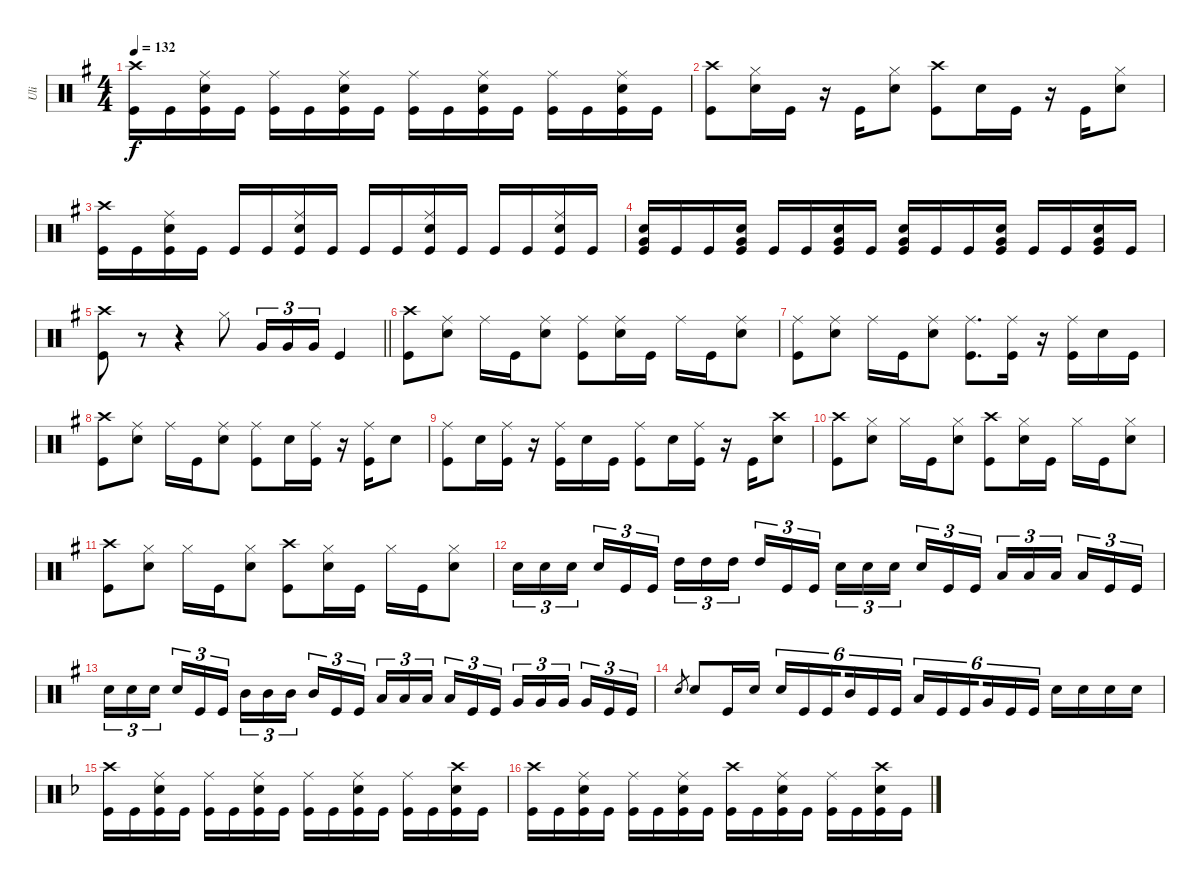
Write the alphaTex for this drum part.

\track ("Uli" "Uli") {instrument percussion}
\staff {score}
\articulation defaults
\ts (4 4)
\tempo 132
\clef neutral
\ks eminor
("Crash high (hit)" "Kick (hit)").16{dy f} "Kick (hit)".16 ("Ride (middle)" "Snare (hit) 2" "Kick (hit)").16 "Kick (hit)".16 ("Ride (middle)" "Kick (hit)").16 "Kick (hit)".16 ("Ride (middle)" "Snare (hit) 2" "Kick (hit)").16 "Kick (hit)".16 ("Ride (middle)" "Kick (hit)").16 "Kick (hit)".16 ("Ride (middle)" "Snare (hit) 2" "Kick (hit)").16 "Kick (hit)".16 ("Ride (middle)" "Kick (hit)").16 "Kick (hit)".16 ("Ride (middle)" "Snare (hit) 2" "Kick (hit)").16 "Kick (hit)".16 |
("Crash high (hit)" "Kick (hit)").8 ("Hi-Hat (closed)" "Snare (hit) 2").16 "Kick (hit)".16 r.16 "Kick (hit)".16 ("Hi-Hat (closed)" "Snare (hit) 2").8 ("Crash high (hit)" "Kick (hit)").8 "Snare (hit) 2".16 "Kick (hit)".16 r.16 "Kick (hit)".16 ("Hi-Hat (closed)" "Snare (hit) 2").8 |
("Crash high (hit)" "Kick (hit)").16 "Kick (hit)".16 ("Ride (middle)" "Snare (hit) 2" "Kick (hit)").16 "Kick (hit)".16 "Kick (hit)".16 "Kick (hit)".16 ("Ride (middle)" "Snare (hit) 2" "Kick (hit)").16 "Kick (hit)".16 "Kick (hit)".16 "Kick (hit)".16 ("Ride (middle)" "Snare (hit) 2" "Kick (hit)").16 "Kick (hit)".16 "Kick (hit)".16 "Kick (hit)".16 ("Ride (middle)" "Snare (hit) 2" "Kick (hit)").16 "Kick (hit)".16 |
("Snare (hit) 2" "Very Low Tom (hit)" "Kick (hit)").16 "Kick (hit)".16 "Kick (hit)".16 ("Snare (hit) 2" "Very Low Tom (hit)" "Kick (hit)").16 "Kick (hit)".16 "Kick (hit)".16 ("Snare (hit) 2" "Very Low Tom (hit)" "Kick (hit)").16 "Kick (hit)".16 ("Snare (hit) 2" "Very Low Tom (hit)" "Kick (hit)").16 "Kick (hit)".16 "Kick (hit)".16 ("Snare (hit) 2" "Very Low Tom (hit)" "Kick (hit)").16 "Kick (hit)".16 "Kick (hit)".16 ("Snare (hit) 2" "Very Low Tom (hit)" "Kick (hit)").16 "Kick (hit)".16 |
\barLineRight lightlight
("Crash high (hit)" "Kick (hit)").8 r.8 r.4 "Hi-Hat (closed)".8 "Very Low Tom (hit)".16{tu (3 2)} "Very Low Tom (hit)".16{tu (3 2)} "Very Low Tom (hit)".16{tu (3 2)} "Kick (hit)".4 |
("Crash high (hit)" "Kick (hit)").8 ("Ride (middle)" "Snare (hit) 2").8 "Ride (middle)".16 "Kick (hit)".16 ("Ride (middle)" "Snare (hit) 2").8 ("Ride (middle)" "Kick (hit)").8 ("Ride (middle)" "Snare (hit) 2").16 "Kick (hit)".16 "Ride (middle)".16 "Kick (hit)".16 ("Ride (middle)" "Snare (hit) 2").8 |
("Ride (middle)" "Kick (hit)").8 ("Ride (middle)" "Snare (hit) 2").8 "Ride (middle)".16 "Kick (hit)".16 ("Ride (middle)" "Snare (hit) 2").8 ("Ride (middle)" "Kick (hit)").8{d} ("Ride (middle)" "Kick (hit)").16 r.16 ("Ride (middle)" "Kick (hit)").16 "Snare (hit) 2".16 "Kick (hit)".16 |
("Crash high (hit)" "Kick (hit)").8 ("Ride (middle)" "Snare (hit) 2").8 "Ride (middle)".16 "Kick (hit)".16 ("Ride (middle)" "Snare (hit) 2").8 ("Ride (middle)" "Kick (hit)").8 "Snare (hit) 2".16 ("Ride (middle)" "Kick (hit)").16 r.16 ("Ride (middle)" "Kick (hit)").16 "Snare (hit) 2".8 |
("Ride (middle)" "Kick (hit)").8 "Snare (hit) 2".16 ("Ride (middle)" "Kick (hit)").16 r.16 ("Ride (middle)" "Kick (hit)").16 "Snare (hit) 2".16 "Kick (hit)".16 ("Ride (middle)" "Kick (hit)").8 "Snare (hit) 2".16 ("Ride (middle)" "Kick (hit)").16 r.16 "Kick (hit)".16 ("Crash high (hit)" "Snare (hit) 2").8 |
("Crash high (hit)" "Kick (hit)").8 ("Hi-Hat (closed)" "Snare (hit) 2").8 "Hi-Hat (closed)".16 "Kick (hit)".16 ("Hi-Hat (closed)" "Snare (hit) 2").8 ("Crash high (hit)" "Kick (hit)").8 ("Hi-Hat (closed)" "Snare (hit) 2").16 "Kick (hit)".16 "Hi-Hat (closed)".16 "Kick (hit)".16 ("Hi-Hat (closed)" "Snare (hit) 2").8 |
("Crash high (hit)" "Kick (hit)").8 ("Hi-Hat (closed)" "Snare (hit) 2").8 "Hi-Hat (closed)".16 "Kick (hit)".16 ("Hi-Hat (closed)" "Snare (hit) 2").8 ("Crash high (hit)" "Kick (hit)").8 ("Hi-Hat (closed)" "Snare (hit) 2").16 "Kick (hit)".16 "Hi-Hat (closed)".16 "Kick (hit)".16 ("Hi-Hat (closed)" "Snare (hit) 2").8 |
"Snare (hit) 2".16{tu (3 2)} "Snare (hit) 2".16{tu (3 2)} "Snare (hit) 2".16{tu (3 2) beam splitsecondary} "Snare (hit) 2".16{tu (3 2)} "Kick (hit)".16{tu (3 2)} "Kick (hit)".16{tu (3 2)} "High Tom (hit)".16{tu (3 2)} "High Tom (hit)".16{tu (3 2)} "High Tom (hit)".16{tu (3 2) beam splitsecondary} "High Tom (hit)".16{tu (3 2)} "Kick (hit)".16{tu (3 2)} "Kick (hit)".16{tu (3 2)} "Snare (hit) 2".16{tu (3 2)} "Snare (hit) 2".16{tu (3 2)} "Snare (hit) 2".16{tu (3 2) beam splitsecondary} "Snare (hit) 2".16{tu (3 2)} "Kick (hit)".16{tu (3 2)} "Kick (hit)".16{tu (3 2)} "Low Tom (hit)".16{tu (3 2)} "Low Tom (hit)".16{tu (3 2)} "Low Tom (hit)".16{tu (3 2) beam splitsecondary} "Low Tom (hit)".16{tu (3 2)} "Kick (hit)".16{tu (3 2)} "Kick (hit)".16{tu (3 2)} |
"Snare (hit) 2".16{tu (3 2)} "Snare (hit) 2".16{tu (3 2)} "Snare (hit) 2".16{tu (3 2) beam splitsecondary} "Snare (hit) 2".16{tu (3 2)} "Kick (hit)".16{tu (3 2)} "Kick (hit)".16{tu (3 2)} "Mid Tom (hit)".16{tu (3 2)} "Mid Tom (hit)".16{tu (3 2)} "Mid Tom (hit)".16{tu (3 2) beam splitsecondary} "Mid Tom (hit)".16{tu (3 2)} "Kick (hit)".16{tu (3 2)} "Kick (hit)".16{tu (3 2)} "Low Tom (hit)".16{tu (3 2)} "Low Tom (hit)".16{tu (3 2)} "Low Tom (hit)".16{tu (3 2) beam splitsecondary} "Low Tom (hit)".16{tu (3 2)} "Kick (hit)".16{tu (3 2)} "Kick (hit)".16{tu (3 2)} "Very Low Tom (hit)".16{tu (3 2)} "Very Low Tom (hit)".16{tu (3 2)} "Very Low Tom (hit)".16{tu (3 2) beam splitsecondary} "Very Low Tom (hit)".16{tu (3 2)} "Kick (hit)".16{tu (3 2)} "Kick (hit)".16{tu (3 2)} |
"Snare (hit) 2".8{gr} "Snare (hit) 2".8 "Kick (hit)".16 "Snare (hit) 2".16 "Snare (hit) 2".16{tu (6 4)} "Kick (hit)".16{tu (6 4)} "Kick (hit)".16{tu (6 4) beam splitsecondary} "Mid Tom (hit)".16{tu (6 4)} "Kick (hit)".16{tu (6 4)} "Kick (hit)".16{tu (6 4)} "Low Tom (hit)".16{tu (6 4)} "Kick (hit)".16{tu (6 4)} "Kick (hit)".16{tu (6 4) beam splitsecondary} "Very Low Tom (hit)".16{tu (6 4)} "Kick (hit)".16{tu (6 4)} "Kick (hit)".16{tu (6 4)} "Snare (hit) 2".16 "Snare (hit) 2".16 "Snare (hit) 2".16 "Snare (hit) 2".16 |
\ks dminor
("Crash high (hit)" "Kick (hit)").16 "Kick (hit)".16 ("Ride (middle)" "Snare (hit) 2" "Kick (hit)").16 "Kick (hit)".16 ("Ride (middle)" "Kick (hit)").16 "Kick (hit)".16 ("Ride (middle)" "Snare (hit) 2" "Kick (hit)").16 "Kick (hit)".16 ("Ride (middle)" "Kick (hit)").16 "Kick (hit)".16 ("Ride (middle)" "Snare (hit) 2" "Kick (hit)").16 "Kick (hit)".16 ("Ride (middle)" "Kick (hit)").16 "Kick (hit)".16 ("Crash high (hit)" "Snare (hit) 2" "Kick (hit)").16 "Kick (hit)".16 |
("Crash high (hit)" "Kick (hit)").16 "Kick (hit)".16 ("Ride (middle)" "Snare (hit) 2" "Kick (hit)").16 "Kick (hit)".16 ("Ride (middle)" "Kick (hit)").16 "Kick (hit)".16 ("Ride (middle)" "Snare (hit) 2" "Kick (hit)").16 "Kick (hit)".16 ("Crash high (hit)" "Kick (hit)").16 "Kick (hit)".16 ("Ride (middle)" "Snare (hit) 2" "Kick (hit)").16 "Kick (hit)".16 ("Ride (middle)" "Kick (hit)").16 "Kick (hit)".16 ("Crash high (hit)" "Snare (hit) 2" "Kick (hit)").16 "Kick (hit)".16
